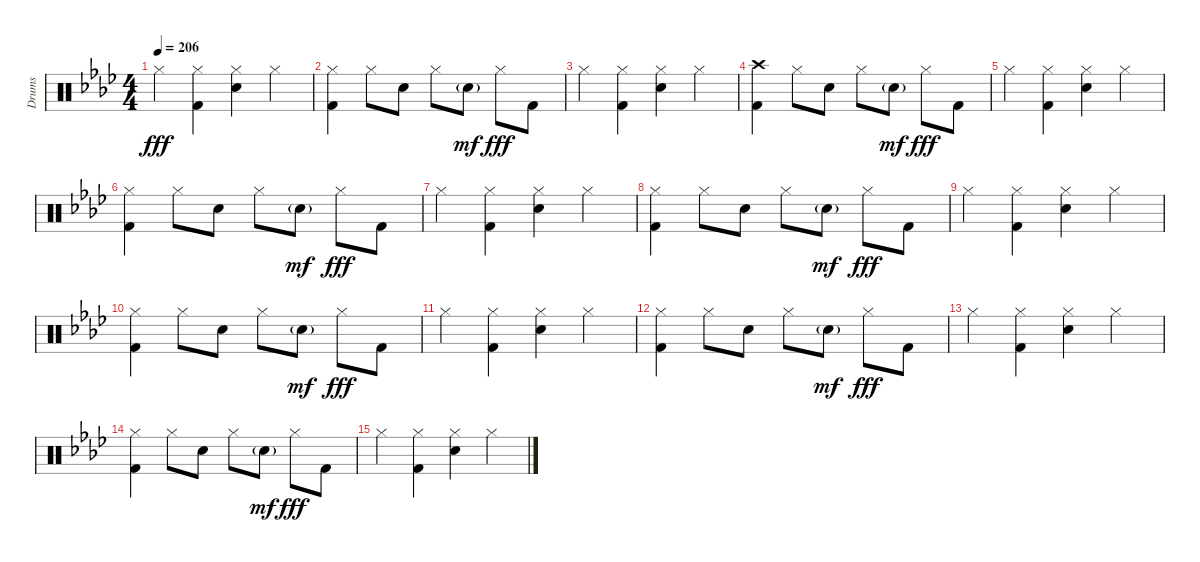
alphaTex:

\track ("Drums" "Drums") {instrument percussion}
\staff {score}
\articulation defaults
\ts (4 4)
\tempo 206
\clef neutral
\ks ab "Hi-Hat (closed)".4{dy fff}
("Hi-Hat (closed)" "Kick (hit) 2").4 ("Hi-Hat (closed)" "Electric Snare (hit)").4 "Hi-Hat (closed)".4 |
("Hi-Hat (closed)" "Kick (hit) 2").4 "Hi-Hat (closed)".8 "Electric Snare (hit)".8 "Hi-Hat (closed)".8 "Electric Snare (hit)"{g}.8{dy mf} "Hi-Hat (closed)".8{dy fff} "Kick (hit) 2".8 |
"Hi-Hat (closed)".4 ("Hi-Hat (closed)" "Kick (hit) 2").4 ("Hi-Hat (closed)" "Electric Snare (hit)").4 "Hi-Hat (closed)".4 |
("Crash high (hit)" "Kick (hit) 2").4 "Hi-Hat (closed)".8 "Electric Snare (hit)".8 "Hi-Hat (closed)".8 "Electric Snare (hit)"{g}.8{dy mf} "Hi-Hat (closed)".8{dy fff} "Kick (hit) 2".8 |
"Hi-Hat (closed)".4 ("Hi-Hat (closed)" "Kick (hit) 2").4 ("Hi-Hat (closed)" "Electric Snare (hit)").4 "Hi-Hat (closed)".4 |
("Hi-Hat (closed)" "Kick (hit) 2").4 "Hi-Hat (closed)".8 "Electric Snare (hit)".8 "Hi-Hat (closed)".8 "Electric Snare (hit)"{g}.8{dy mf} "Hi-Hat (closed)".8{dy fff} "Kick (hit) 2".8 |
"Hi-Hat (closed)".4 ("Hi-Hat (closed)" "Kick (hit) 2").4 ("Hi-Hat (closed)" "Electric Snare (hit)").4 "Hi-Hat (closed)".4 |
("Hi-Hat (closed)" "Kick (hit) 2").4 "Hi-Hat (closed)".8 "Electric Snare (hit)".8 "Hi-Hat (closed)".8 "Electric Snare (hit)"{g}.8{dy mf} "Hi-Hat (closed)".8{dy fff} "Kick (hit) 2".8 |
"Hi-Hat (closed)".4 ("Hi-Hat (closed)" "Kick (hit) 2").4 ("Hi-Hat (closed)" "Electric Snare (hit)").4 "Hi-Hat (closed)".4 |
("Hi-Hat (closed)" "Kick (hit) 2").4 "Hi-Hat (closed)".8 "Electric Snare (hit)".8 "Hi-Hat (closed)".8 "Electric Snare (hit)"{g}.8{dy mf} "Hi-Hat (closed)".8{dy fff} "Kick (hit) 2".8 |
"Hi-Hat (closed)".4 ("Hi-Hat (closed)" "Kick (hit) 2").4 ("Hi-Hat (closed)" "Electric Snare (hit)").4 "Hi-Hat (closed)".4 |
("Hi-Hat (closed)" "Kick (hit) 2").4 "Hi-Hat (closed)".8 "Electric Snare (hit)".8 "Hi-Hat (closed)".8 "Electric Snare (hit)"{g}.8{dy mf} "Hi-Hat (closed)".8{dy fff} "Kick (hit) 2".8 |
"Hi-Hat (closed)".4 ("Hi-Hat (closed)" "Kick (hit) 2").4 ("Hi-Hat (closed)" "Electric Snare (hit)").4 "Hi-Hat (closed)".4 |
("Hi-Hat (closed)" "Kick (hit) 2").4 "Hi-Hat (closed)".8 "Electric Snare (hit)".8 "Hi-Hat (closed)".8 "Electric Snare (hit)"{g}.8{dy mf} "Hi-Hat (closed)".8{dy fff} "Kick (hit) 2".8 |
"Hi-Hat (closed)".4 ("Hi-Hat (closed)" "Kick (hit) 2").4 ("Hi-Hat (closed)" "Electric Snare (hit)").4 "Hi-Hat (closed)".4
